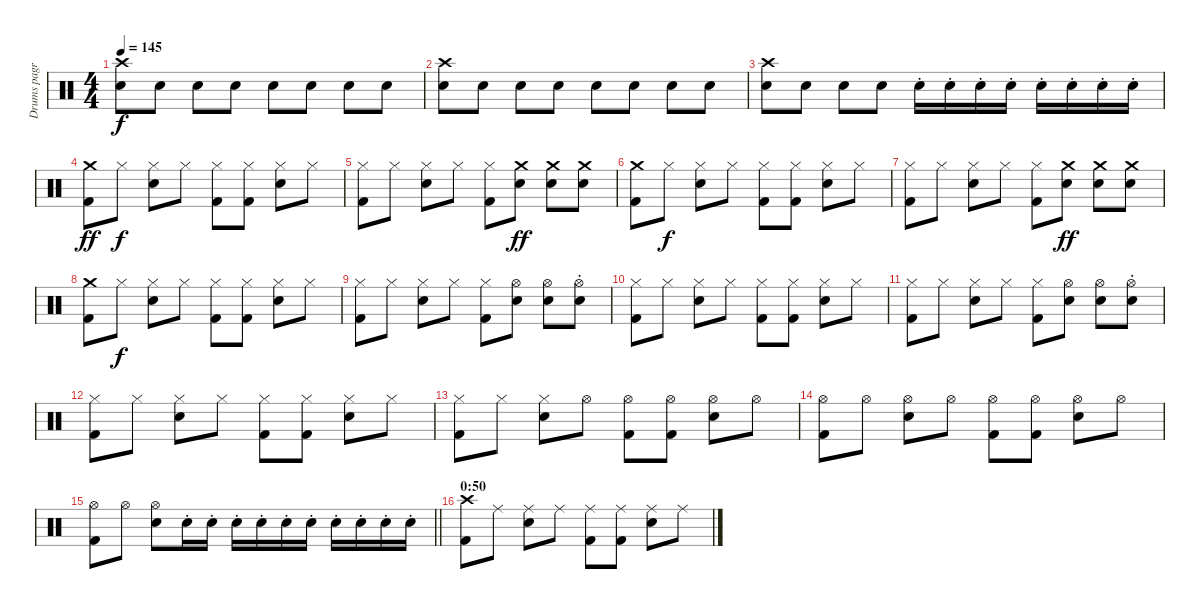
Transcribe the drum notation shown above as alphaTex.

\track ("Drums pagr" "Drums pagr") {instrument percussion}
\staff {score}
\articulation defaults
\ts (4 4)
\tempo 145
\clef neutral
\ks c
("Crash high (hit)" "Snare (hit) 2").8{dy f} "Snare (hit) 2".8 "Snare (hit) 2".8 "Snare (hit) 2".8 "Snare (hit) 2".8 "Snare (hit) 2".8 "Snare (hit) 2".8 "Snare (hit) 2".8 |
("Crash high (hit)" "Snare (hit) 2").8 "Snare (hit) 2".8 "Snare (hit) 2".8 "Snare (hit) 2".8 "Snare (hit) 2".8 "Snare (hit) 2".8 "Snare (hit) 2".8 "Snare (hit) 2".8 |
("Crash high (hit)" "Snare (hit) 2").8 "Snare (hit) 2".8 "Snare (hit) 2".8 "Snare (hit) 2".8 "Snare (hit) 2"{st}.16 "Snare (hit) 2"{st}.16 "Snare (hit) 2"{st}.16 "Snare (hit) 2"{st}.16 "Snare (hit) 2"{st}.16 "Snare (hit) 2"{st}.16 "Snare (hit) 2"{st}.16 "Snare (hit) 2"{st}.16 |
("Crash medium (hit)" "Kick (hit) 2").8{dy ff} "Hi-Hat (closed)".8{dy f} ("Hi-Hat (closed)" "Snare (hit) 2").8 "Hi-Hat (closed)".8 ("Hi-Hat (closed)" "Kick (hit) 2").8 ("Hi-Hat (closed)" "Kick (hit) 2").8 ("Hi-Hat (closed)" "Snare (hit) 2").8 "Hi-Hat (closed)".8 |
("Hi-Hat (closed)" "Kick (hit) 2").8 "Hi-Hat (closed)".8 ("Hi-Hat (closed)" "Snare (hit) 2").8 "Hi-Hat (closed)".8 ("Hi-Hat (closed)" "Kick (hit) 2").8 ("Crash medium (hit)" "Snare (hit) 2").8{dy ff} ("Crash medium (hit)" "Snare (hit) 2").8 ("Crash medium (hit)" "Snare (hit) 2").8 |
("Crash medium (hit)" "Kick (hit) 2").8 "Hi-Hat (closed)".8{dy f} ("Hi-Hat (closed)" "Snare (hit) 2").8 "Hi-Hat (closed)".8 ("Hi-Hat (closed)" "Kick (hit) 2").8 ("Hi-Hat (closed)" "Kick (hit) 2").8 ("Hi-Hat (closed)" "Snare (hit) 2").8 "Hi-Hat (closed)".8 |
("Hi-Hat (closed)" "Kick (hit) 2").8 "Hi-Hat (closed)".8 ("Hi-Hat (closed)" "Snare (hit) 2").8 "Hi-Hat (closed)".8 ("Hi-Hat (closed)" "Kick (hit) 2").8 ("Crash medium (hit)" "Snare (hit) 2").8{dy ff} ("Crash medium (hit)" "Snare (hit) 2").8 ("Crash medium (hit)" "Snare (hit) 2").8 |
("Crash medium (hit)" "Kick (hit) 2").8 "Hi-Hat (closed)".8{dy f} ("Hi-Hat (closed)" "Snare (hit) 2").8 "Hi-Hat (closed)".8 ("Hi-Hat (closed)" "Kick (hit) 2").8 ("Hi-Hat (closed)" "Kick (hit) 2").8 ("Hi-Hat (closed)" "Snare (hit) 2").8 "Hi-Hat (closed)".8 |
("Hi-Hat (closed)" "Kick (hit) 2").8 "Hi-Hat (closed)".8 ("Hi-Hat (closed)" "Snare (hit) 2").8 "Hi-Hat (closed)".8 ("Hi-Hat (closed)" "Kick (hit) 2").8 ("Hi-Hat (open)" "Snare (hit) 2").8 ("Hi-Hat (open)" "Snare (hit) 2").8 ("Hi-Hat (open)"{st} "Snare (hit) 2").8 |
("Hi-Hat (closed)" "Kick (hit) 2").8 "Hi-Hat (closed)".8 ("Hi-Hat (closed)" "Snare (hit) 2").8 "Hi-Hat (closed)".8 ("Hi-Hat (closed)" "Kick (hit) 2").8 ("Hi-Hat (closed)" "Kick (hit) 2").8 ("Hi-Hat (closed)" "Snare (hit) 2").8 "Hi-Hat (closed)".8 |
("Hi-Hat (closed)" "Kick (hit) 2").8 "Hi-Hat (closed)".8 ("Hi-Hat (closed)" "Snare (hit) 2").8 "Hi-Hat (closed)".8 ("Hi-Hat (closed)" "Kick (hit) 2").8 ("Hi-Hat (open)" "Snare (hit) 2").8 ("Hi-Hat (open)" "Snare (hit) 2").8 ("Hi-Hat (open)"{st} "Snare (hit) 2").8 |
("Hi-Hat (closed)" "Kick (hit) 2").8 "Hi-Hat (closed)".8 ("Hi-Hat (closed)" "Snare (hit) 2").8 "Hi-Hat (closed)".8 ("Hi-Hat (closed)" "Kick (hit) 2").8 ("Hi-Hat (closed)" "Kick (hit) 2").8 ("Hi-Hat (closed)" "Snare (hit) 2").8 "Hi-Hat (closed)".8 |
("Hi-Hat (closed)" "Kick (hit) 2").8 "Hi-Hat (closed)".8 ("Hi-Hat (closed)" "Snare (hit) 2").8 "Hi-Hat (open)".8 ("Hi-Hat (open)" "Kick (hit) 2").8 ("Hi-Hat (open)" "Kick (hit) 2").8 ("Hi-Hat (open)" "Snare (hit) 2").8 "Hi-Hat (open)".8 |
("Hi-Hat (open)" "Kick (hit) 2").8 "Hi-Hat (open)".8 ("Hi-Hat (open)" "Snare (hit) 2").8 "Hi-Hat (open)".8 ("Hi-Hat (open)" "Kick (hit) 2").8 ("Hi-Hat (open)" "Kick (hit) 2").8 ("Hi-Hat (open)" "Snare (hit) 2").8 "Hi-Hat (open)".8 |
\barLineRight lightlight
("Hi-Hat (open)" "Kick (hit) 2").8 "Hi-Hat (open)".8 ("Hi-Hat (open)" "Snare (hit) 2").8 "Snare (hit) 2"{st}.16 "Snare (hit) 2"{st}.16 "Snare (hit) 2"{st}.16 "Snare (hit) 2"{st}.16 "Snare (hit) 2"{st}.16 "Snare (hit) 2"{st}.16 "Snare (hit) 2"{st}.16 "Snare (hit) 2"{st}.16 "Snare (hit) 2"{st}.16 "Snare (hit) 2"{st}.16 |
\section ("" "0:50")
("Crash high (hit)" "Kick (hit) 2").8 "Ride (middle)".8 ("Ride (middle)" "Snare (hit) 2").8 "Ride (middle)".8 ("Ride (middle)" "Kick (hit) 2").8 ("Ride (middle)" "Kick (hit) 2").8 ("Ride (middle)" "Snare (hit) 2").8 "Ride (middle)".8
